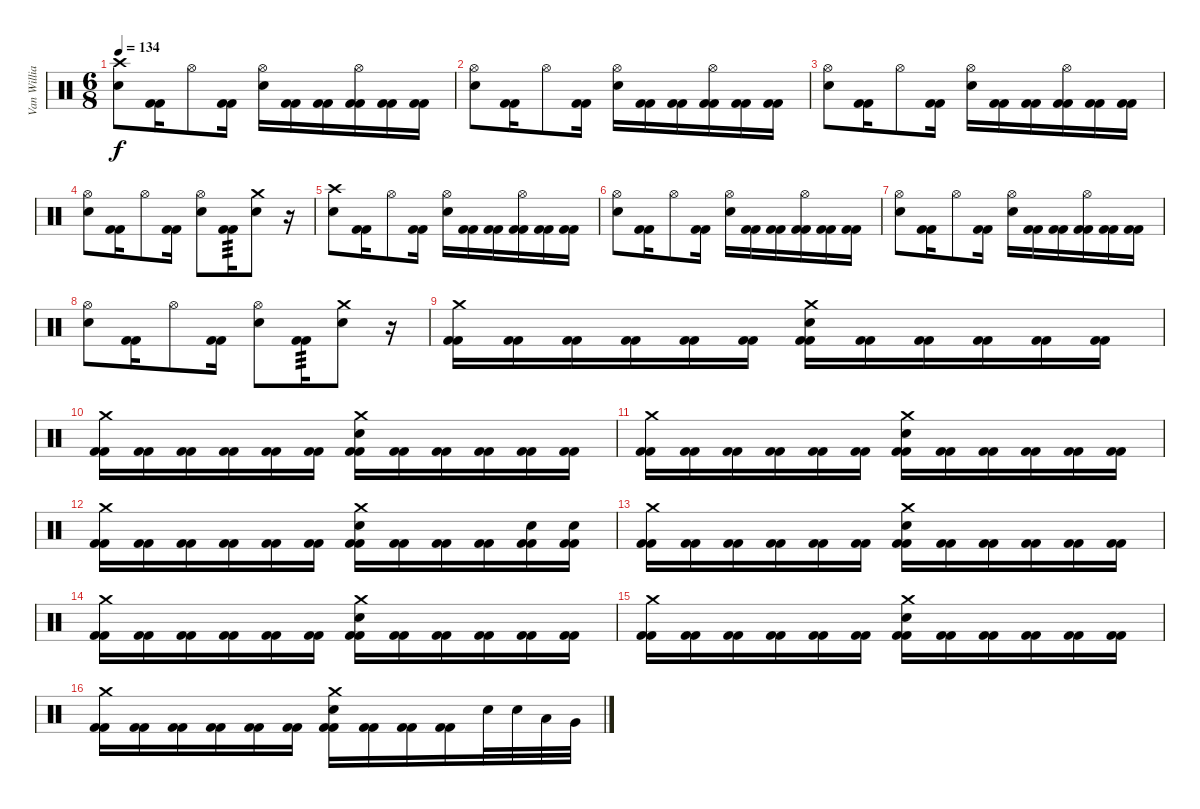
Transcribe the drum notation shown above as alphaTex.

\track ("Van Williams" "Van Willia") {instrument percussion}
\staff {score}
\articulation defaults
\ts (6 8)
\tempo 134
\clef neutral
\ks c
("Crash high (hit)" "Electric Snare (hit)").8{dy f} ("Kick (hit) 2" "Kick (hit) 2").16 "Hi-Hat (open)".8 ("Kick (hit) 2" "Kick (hit) 2").16 ("Hi-Hat (open)" "Electric Snare (hit)").16 ("Kick (hit) 2" "Kick (hit) 2").16 ("Kick (hit) 2" "Kick (hit) 2").16 ("Hi-Hat (open)" "Kick (hit) 2" "Kick (hit) 2").16 ("Kick (hit) 2" "Kick (hit) 2").16 ("Kick (hit) 2" "Kick (hit) 2").16 |
("Hi-Hat (open)" "Electric Snare (hit)").8 ("Kick (hit) 2" "Kick (hit) 2").16 "Hi-Hat (open)".8 ("Kick (hit) 2" "Kick (hit) 2").16 ("Hi-Hat (open)" "Electric Snare (hit)").16 ("Kick (hit) 2" "Kick (hit) 2").16 ("Kick (hit) 2" "Kick (hit) 2").16 ("Hi-Hat (open)" "Kick (hit) 2" "Kick (hit) 2").16 ("Kick (hit) 2" "Kick (hit) 2").16 ("Kick (hit) 2" "Kick (hit) 2").16 |
("Hi-Hat (open)" "Electric Snare (hit)").8 ("Kick (hit) 2" "Kick (hit) 2").16 "Hi-Hat (open)".8 ("Kick (hit) 2" "Kick (hit) 2").16 ("Hi-Hat (open)" "Electric Snare (hit)").16 ("Kick (hit) 2" "Kick (hit) 2").16 ("Kick (hit) 2" "Kick (hit) 2").16 ("Hi-Hat (open)" "Kick (hit) 2" "Kick (hit) 2").16 ("Kick (hit) 2" "Kick (hit) 2").16 ("Kick (hit) 2" "Kick (hit) 2").16 |
("Hi-Hat (open)" "Electric Snare (hit)").8 ("Kick (hit) 2" "Kick (hit) 2").16 "Hi-Hat (open)".8 ("Kick (hit) 2" "Kick (hit) 2").16 ("Hi-Hat (open)" "Electric Snare (hit)").8 ("Kick (hit) 2" "Kick (hit) 2").16{tp 3} ("Crash medium (hit)" "Electric Snare (hit)").8 r.16 |
("Crash high (hit)" "Electric Snare (hit)").8 ("Kick (hit) 2" "Kick (hit) 2").16 "Hi-Hat (open)".8 ("Kick (hit) 2" "Kick (hit) 2").16 ("Hi-Hat (open)" "Electric Snare (hit)").16 ("Kick (hit) 2" "Kick (hit) 2").16 ("Kick (hit) 2" "Kick (hit) 2").16 ("Hi-Hat (open)" "Kick (hit) 2" "Kick (hit) 2").16 ("Kick (hit) 2" "Kick (hit) 2").16 ("Kick (hit) 2" "Kick (hit) 2").16 |
("Hi-Hat (open)" "Electric Snare (hit)").8 ("Kick (hit) 2" "Kick (hit) 2").16 "Hi-Hat (open)".8 ("Kick (hit) 2" "Kick (hit) 2").16 ("Hi-Hat (open)" "Electric Snare (hit)").16 ("Kick (hit) 2" "Kick (hit) 2").16 ("Kick (hit) 2" "Kick (hit) 2").16 ("Hi-Hat (open)" "Kick (hit) 2" "Kick (hit) 2").16 ("Kick (hit) 2" "Kick (hit) 2").16 ("Kick (hit) 2" "Kick (hit) 2").16 |
("Hi-Hat (open)" "Electric Snare (hit)").8 ("Kick (hit) 2" "Kick (hit) 2").16 "Hi-Hat (open)".8 ("Kick (hit) 2" "Kick (hit) 2").16 ("Hi-Hat (open)" "Electric Snare (hit)").16 ("Kick (hit) 2" "Kick (hit) 2").16 ("Kick (hit) 2" "Kick (hit) 2").16 ("Hi-Hat (open)" "Kick (hit) 2" "Kick (hit) 2").16 ("Kick (hit) 2" "Kick (hit) 2").16 ("Kick (hit) 2" "Kick (hit) 2").16 |
("Hi-Hat (open)" "Electric Snare (hit)").8 ("Kick (hit) 2" "Kick (hit) 2").16 "Hi-Hat (open)".8 ("Kick (hit) 2" "Kick (hit) 2").16 ("Hi-Hat (open)" "Electric Snare (hit)").8 ("Kick (hit) 2" "Kick (hit) 2").16{tp 3} ("Crash medium (hit)" "Electric Snare (hit)").8 r.16 |
("Crash medium (hit)" "Kick (hit) 2" "Kick (hit) 2").16 ("Kick (hit) 2" "Kick (hit) 2").16 ("Kick (hit) 2" "Kick (hit) 2").16 ("Kick (hit) 2" "Kick (hit) 2").16 ("Kick (hit) 2" "Kick (hit) 2").16 ("Kick (hit) 2" "Kick (hit) 2").16 ("Crash medium (hit)" "Electric Snare (hit)" "Kick (hit) 2" "Kick (hit) 2").16 ("Kick (hit) 2" "Kick (hit) 2").16 ("Kick (hit) 2" "Kick (hit) 2").16 ("Kick (hit) 2" "Kick (hit) 2").16 ("Kick (hit) 2" "Kick (hit) 2").16 ("Kick (hit) 2" "Kick (hit) 2").16 |
("Crash medium (hit)" "Kick (hit) 2" "Kick (hit) 2").16 ("Kick (hit) 2" "Kick (hit) 2").16 ("Kick (hit) 2" "Kick (hit) 2").16 ("Kick (hit) 2" "Kick (hit) 2").16 ("Kick (hit) 2" "Kick (hit) 2").16 ("Kick (hit) 2" "Kick (hit) 2").16 ("Crash medium (hit)" "Electric Snare (hit)" "Kick (hit) 2" "Kick (hit) 2").16 ("Kick (hit) 2" "Kick (hit) 2").16 ("Kick (hit) 2" "Kick (hit) 2").16 ("Kick (hit) 2" "Kick (hit) 2").16 ("Kick (hit) 2" "Kick (hit) 2").16 ("Kick (hit) 2" "Kick (hit) 2").16 |
("Crash medium (hit)" "Kick (hit) 2" "Kick (hit) 2").16 ("Kick (hit) 2" "Kick (hit) 2").16 ("Kick (hit) 2" "Kick (hit) 2").16 ("Kick (hit) 2" "Kick (hit) 2").16 ("Kick (hit) 2" "Kick (hit) 2").16 ("Kick (hit) 2" "Kick (hit) 2").16 ("Crash medium (hit)" "Electric Snare (hit)" "Kick (hit) 2" "Kick (hit) 2").16 ("Kick (hit) 2" "Kick (hit) 2").16 ("Kick (hit) 2" "Kick (hit) 2").16 ("Kick (hit) 2" "Kick (hit) 2").16 ("Kick (hit) 2" "Kick (hit) 2").16 ("Kick (hit) 2" "Kick (hit) 2").16 |
("Crash medium (hit)" "Kick (hit) 2" "Kick (hit) 2").16 ("Kick (hit) 2" "Kick (hit) 2").16 ("Kick (hit) 2" "Kick (hit) 2").16 ("Kick (hit) 2" "Kick (hit) 2").16 ("Kick (hit) 2" "Kick (hit) 2").16 ("Kick (hit) 2" "Kick (hit) 2").16 ("Crash medium (hit)" "Electric Snare (hit)" "Kick (hit) 2" "Kick (hit) 2").16 ("Kick (hit) 2" "Kick (hit) 2").16 ("Kick (hit) 2" "Kick (hit) 2").16 ("Kick (hit) 2" "Kick (hit) 2").16 ("Electric Snare (hit)" "Kick (hit) 2" "Kick (hit) 2").16 ("Electric Snare (hit)" "Kick (hit) 2" "Kick (hit) 2").16 |
("Crash medium (hit)" "Kick (hit) 2" "Kick (hit) 2").16 ("Kick (hit) 2" "Kick (hit) 2").16 ("Kick (hit) 2" "Kick (hit) 2").16 ("Kick (hit) 2" "Kick (hit) 2").16 ("Kick (hit) 2" "Kick (hit) 2").16 ("Kick (hit) 2" "Kick (hit) 2").16 ("Crash medium (hit)" "Electric Snare (hit)" "Kick (hit) 2" "Kick (hit) 2").16 ("Kick (hit) 2" "Kick (hit) 2").16 ("Kick (hit) 2" "Kick (hit) 2").16 ("Kick (hit) 2" "Kick (hit) 2").16 ("Kick (hit) 2" "Kick (hit) 2").16 ("Kick (hit) 2" "Kick (hit) 2").16 |
("Crash medium (hit)" "Kick (hit) 2" "Kick (hit) 2").16 ("Kick (hit) 2" "Kick (hit) 2").16 ("Kick (hit) 2" "Kick (hit) 2").16 ("Kick (hit) 2" "Kick (hit) 2").16 ("Kick (hit) 2" "Kick (hit) 2").16 ("Kick (hit) 2" "Kick (hit) 2").16 ("Crash medium (hit)" "Electric Snare (hit)" "Kick (hit) 2" "Kick (hit) 2").16 ("Kick (hit) 2" "Kick (hit) 2").16 ("Kick (hit) 2" "Kick (hit) 2").16 ("Kick (hit) 2" "Kick (hit) 2").16 ("Kick (hit) 2" "Kick (hit) 2").16 ("Kick (hit) 2" "Kick (hit) 2").16 |
("Crash medium (hit)" "Kick (hit) 2" "Kick (hit) 2").16 ("Kick (hit) 2" "Kick (hit) 2").16 ("Kick (hit) 2" "Kick (hit) 2").16 ("Kick (hit) 2" "Kick (hit) 2").16 ("Kick (hit) 2" "Kick (hit) 2").16 ("Kick (hit) 2" "Kick (hit) 2").16 ("Crash medium (hit)" "Electric Snare (hit)" "Kick (hit) 2" "Kick (hit) 2").16 ("Kick (hit) 2" "Kick (hit) 2").16 ("Kick (hit) 2" "Kick (hit) 2").16 ("Kick (hit) 2" "Kick (hit) 2").16 ("Kick (hit) 2" "Kick (hit) 2").16 ("Kick (hit) 2" "Kick (hit) 2").16 |
("Crash medium (hit)" "Kick (hit) 2" "Kick (hit) 2").16 ("Kick (hit) 2" "Kick (hit) 2").16 ("Kick (hit) 2" "Kick (hit) 2").16 ("Kick (hit) 2" "Kick (hit) 2").16 ("Kick (hit) 2" "Kick (hit) 2").16 ("Kick (hit) 2" "Kick (hit) 2").16 ("Crash medium (hit)" "Electric Snare (hit)" "Kick (hit) 2" "Kick (hit) 2").16 ("Kick (hit) 2" "Kick (hit) 2").16 ("Kick (hit) 2" "Kick (hit) 2").16 ("Kick (hit) 2" "Kick (hit) 2").16 "Electric Snare (hit)".32 "Electric Snare (hit)".32 "Low Tom (hit)".32 "Very Low Tom (hit)".32
